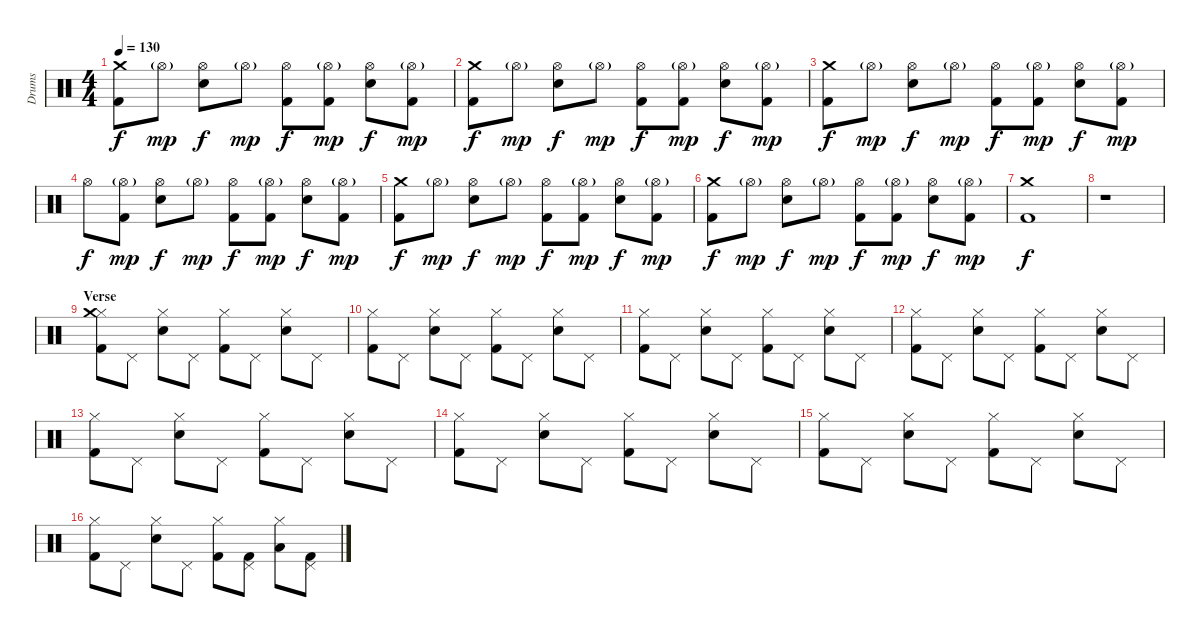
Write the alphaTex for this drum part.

\track ("Drums" "Drums") {instrument percussion}
\staff {score}
\articulation defaults
\ts (4 4)
\tempo 130
\clef neutral
\ks c
("Kick (hit) 2" "Crash medium (hit)").8{dy f} "Hi-Hat (open)"{g}.8{dy mp} ("Electric Snare (hit)" "Hi-Hat (open)").8{dy f} "Hi-Hat (open)"{g}.8{dy mp} ("Kick (hit) 2" "Hi-Hat (open)").8{dy f} ("Kick (hit) 2" "Hi-Hat (open)"{g}).8{dy mp} ("Electric Snare (hit)" "Hi-Hat (open)").8{dy f} ("Kick (hit) 2" "Hi-Hat (open)"{g}).8{dy mp} |
("Kick (hit) 2" "Crash medium (hit)").8{dy f} "Hi-Hat (open)"{g}.8{dy mp} ("Electric Snare (hit)" "Hi-Hat (open)").8{dy f} "Hi-Hat (open)"{g}.8{dy mp} ("Kick (hit) 2" "Hi-Hat (open)").8{dy f} ("Kick (hit) 2" "Hi-Hat (open)"{g}).8{dy mp} ("Electric Snare (hit)" "Hi-Hat (open)").8{dy f} ("Kick (hit) 2" "Hi-Hat (open)"{g}).8{dy mp} |
("Kick (hit) 2" "Crash medium (hit)").8{dy f} "Hi-Hat (open)"{g}.8{dy mp} ("Electric Snare (hit)" "Hi-Hat (open)").8{dy f} "Hi-Hat (open)"{g}.8{dy mp} ("Kick (hit) 2" "Hi-Hat (open)").8{dy f} ("Kick (hit) 2" "Hi-Hat (open)"{g}).8{dy mp} ("Electric Snare (hit)" "Hi-Hat (open)").8{dy f} ("Kick (hit) 2" "Hi-Hat (open)"{g}).8{dy mp} |
"Hi-Hat (open)".8{dy f} ("Kick (hit) 2" "Hi-Hat (open)"{g}).8{dy mp} ("Electric Snare (hit)" "Hi-Hat (open)").8{dy f} "Hi-Hat (open)"{g}.8{dy mp} ("Kick (hit) 2" "Hi-Hat (open)").8{dy f} ("Kick (hit) 2" "Hi-Hat (open)"{g}).8{dy mp} ("Electric Snare (hit)" "Hi-Hat (open)").8{dy f} ("Kick (hit) 2" "Hi-Hat (open)"{g}).8{dy mp} |
("Kick (hit) 2" "Crash medium (hit)").8{dy f} "Hi-Hat (open)"{g}.8{dy mp} ("Electric Snare (hit)" "Hi-Hat (open)").8{dy f} "Hi-Hat (open)"{g}.8{dy mp} ("Kick (hit) 2" "Hi-Hat (open)").8{dy f} ("Kick (hit) 2" "Hi-Hat (open)"{g}).8{dy mp} ("Electric Snare (hit)" "Hi-Hat (open)").8{dy f} ("Kick (hit) 2" "Hi-Hat (open)"{g}).8{dy mp} |
("Kick (hit) 2" "Crash medium (hit)").8{dy f} "Hi-Hat (open)"{g}.8{dy mp} ("Electric Snare (hit)" "Hi-Hat (open)").8{dy f} "Hi-Hat (open)"{g}.8{dy mp} ("Kick (hit) 2" "Hi-Hat (open)").8{dy f} ("Kick (hit) 2" "Hi-Hat (open)"{g}).8{dy mp} ("Electric Snare (hit)" "Hi-Hat (open)").8{dy f} ("Kick (hit) 2" "Hi-Hat (open)"{g}).8{dy mp} |
("Kick (hit) 2" "Crash medium (hit)").1{dy f} |
r.1 |
\section ("" "Verse")
("Kick (hit) 2" "Hi-Hat (closed)" "Crash medium (hit)").8 "Pedal Hi-Hat (hit)".8 ("Electric Snare (hit)" "Hi-Hat (closed)").8 "Pedal Hi-Hat (hit)".8 ("Kick (hit) 2" "Hi-Hat (closed)").8 "Pedal Hi-Hat (hit)".8 ("Electric Snare (hit)" "Hi-Hat (closed)").8 "Pedal Hi-Hat (hit)".8 |
("Kick (hit) 2" "Hi-Hat (closed)").8 "Pedal Hi-Hat (hit)".8 ("Electric Snare (hit)" "Hi-Hat (closed)").8 "Pedal Hi-Hat (hit)".8 ("Kick (hit) 2" "Hi-Hat (closed)").8 "Pedal Hi-Hat (hit)".8 ("Electric Snare (hit)" "Hi-Hat (closed)").8 "Pedal Hi-Hat (hit)".8 |
("Kick (hit) 2" "Hi-Hat (closed)").8 "Pedal Hi-Hat (hit)".8 ("Electric Snare (hit)" "Hi-Hat (closed)").8 "Pedal Hi-Hat (hit)".8 ("Kick (hit) 2" "Hi-Hat (closed)").8 "Pedal Hi-Hat (hit)".8 ("Electric Snare (hit)" "Hi-Hat (closed)").8 "Pedal Hi-Hat (hit)".8 |
("Kick (hit) 2" "Hi-Hat (closed)").8 "Pedal Hi-Hat (hit)".8 ("Electric Snare (hit)" "Hi-Hat (closed)").8 "Pedal Hi-Hat (hit)".8 ("Kick (hit) 2" "Hi-Hat (closed)").8 "Pedal Hi-Hat (hit)".8 ("Electric Snare (hit)" "Hi-Hat (closed)").8 "Pedal Hi-Hat (hit)".8 |
("Kick (hit) 2" "Hi-Hat (closed)").8 "Pedal Hi-Hat (hit)".8 ("Electric Snare (hit)" "Hi-Hat (closed)").8 "Pedal Hi-Hat (hit)".8 ("Kick (hit) 2" "Hi-Hat (closed)").8 "Pedal Hi-Hat (hit)".8 ("Electric Snare (hit)" "Hi-Hat (closed)").8 "Pedal Hi-Hat (hit)".8 |
("Kick (hit) 2" "Hi-Hat (closed)").8 "Pedal Hi-Hat (hit)".8 ("Electric Snare (hit)" "Hi-Hat (closed)").8 "Pedal Hi-Hat (hit)".8 ("Kick (hit) 2" "Hi-Hat (closed)").8 "Pedal Hi-Hat (hit)".8 ("Electric Snare (hit)" "Hi-Hat (closed)").8 "Pedal Hi-Hat (hit)".8 |
("Kick (hit) 2" "Hi-Hat (closed)").8 "Pedal Hi-Hat (hit)".8 ("Electric Snare (hit)" "Hi-Hat (closed)").8 "Pedal Hi-Hat (hit)".8 ("Kick (hit) 2" "Hi-Hat (closed)").8 "Pedal Hi-Hat (hit)".8 ("Electric Snare (hit)" "Hi-Hat (closed)").8 "Pedal Hi-Hat (hit)".8 |
("Kick (hit) 2" "Hi-Hat (closed)").8 "Pedal Hi-Hat (hit)".8 ("Electric Snare (hit)" "Hi-Hat (closed)").8 "Pedal Hi-Hat (hit)".8 ("Kick (hit) 2" "Hi-Hat (closed)").8 ("Kick (hit) 2" "Pedal Hi-Hat (hit)").8 ("Low Floor Tom (hit)" "Hi-Hat (closed)").8 ("Kick (hit) 2" "Pedal Hi-Hat (hit)").8
